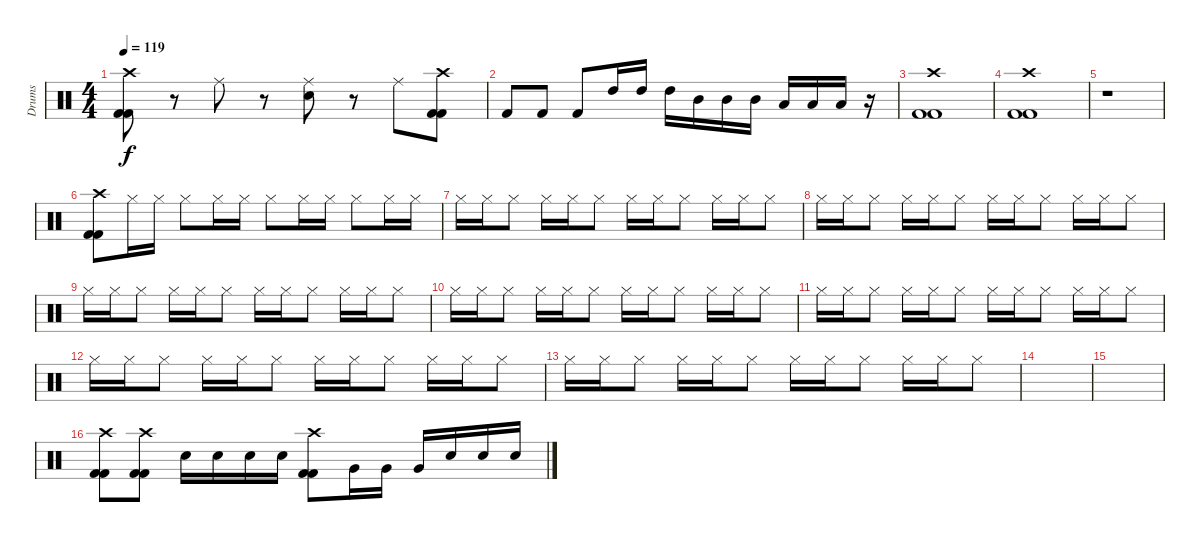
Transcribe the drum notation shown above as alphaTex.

\track ("Drums" "Drums") {instrument percussion}
\staff {score}
\articulation defaults
\ts (4 4)
\tempo 119
\clef neutral
\ks c
("Crash high (hit)" "Kick (hit) 2" "Kick (hit) 2").8{dy f} r.8 "Ride (middle)".8 r.8 ("Ride (middle)" "Electric Snare (hit)").8 r.8 "Ride (middle)".8 ("Crash high (hit)" "Kick (hit) 2" "Kick (hit) 2").8 |
"Kick (hit) 2".8 "Kick (hit) 2".8 "Kick (hit) 2".8 "High Tom (hit)".16 "High Tom (hit)".16 "High Tom (hit)".16 "Mid Tom (hit)".16 "Mid Tom (hit)".16 "Mid Tom (hit)".16 "Low Tom (hit)".16 "Low Tom (hit)".16 "Low Tom (hit)".16 r.16 |
("Crash high (hit)" "Kick (hit) 2" "Kick (hit) 2").1 |
("Crash high (hit)" "Kick (hit) 2" "Kick (hit) 2").1 |
r.1 |
("Crash high (hit)" "Kick (hit) 2" "Kick (hit) 2").8{volume 8} "Hi-Hat (closed)".16 "Hi-Hat (closed)".16 "Hi-Hat (closed)".8 "Hi-Hat (closed)".16 "Hi-Hat (closed)".16 "Hi-Hat (closed)".8 "Hi-Hat (closed)".16 "Hi-Hat (closed)".16 "Hi-Hat (closed)".8 "Hi-Hat (closed)".16 "Hi-Hat (closed)".16 |
"Hi-Hat (closed)".16 "Hi-Hat (closed)".16 "Hi-Hat (closed)".8 "Hi-Hat (closed)".16 "Hi-Hat (closed)".16 "Hi-Hat (closed)".8 "Hi-Hat (closed)".16 "Hi-Hat (closed)".16 "Hi-Hat (closed)".8 "Hi-Hat (closed)".16 "Hi-Hat (closed)".16 "Hi-Hat (closed)".8 |
"Hi-Hat (closed)".16 "Hi-Hat (closed)".16 "Hi-Hat (closed)".8 "Hi-Hat (closed)".16 "Hi-Hat (closed)".16 "Hi-Hat (closed)".8 "Hi-Hat (closed)".16 "Hi-Hat (closed)".16 "Hi-Hat (closed)".8 "Hi-Hat (closed)".16 "Hi-Hat (closed)".16 "Hi-Hat (closed)".8 |
"Hi-Hat (closed)".16 "Hi-Hat (closed)".16 "Hi-Hat (closed)".8 "Hi-Hat (closed)".16 "Hi-Hat (closed)".16 "Hi-Hat (closed)".8 "Hi-Hat (closed)".16 "Hi-Hat (closed)".16 "Hi-Hat (closed)".8 "Hi-Hat (closed)".16 "Hi-Hat (closed)".16 "Hi-Hat (closed)".8 |
"Hi-Hat (closed)".16 "Hi-Hat (closed)".16 "Hi-Hat (closed)".8 "Hi-Hat (closed)".16 "Hi-Hat (closed)".16 "Hi-Hat (closed)".8 "Hi-Hat (closed)".16 "Hi-Hat (closed)".16 "Hi-Hat (closed)".8 "Hi-Hat (closed)".16 "Hi-Hat (closed)".16 "Hi-Hat (closed)".8 |
"Hi-Hat (closed)".16 "Hi-Hat (closed)".16 "Hi-Hat (closed)".8 "Hi-Hat (closed)".16 "Hi-Hat (closed)".16 "Hi-Hat (closed)".8 "Hi-Hat (closed)".16 "Hi-Hat (closed)".16 "Hi-Hat (closed)".8 "Hi-Hat (closed)".16 "Hi-Hat (closed)".16 "Hi-Hat (closed)".8 |
"Hi-Hat (closed)".16 "Hi-Hat (closed)".16 "Hi-Hat (closed)".8 "Hi-Hat (closed)".16 "Hi-Hat (closed)".16 "Hi-Hat (closed)".8 "Hi-Hat (closed)".16 "Hi-Hat (closed)".16 "Hi-Hat (closed)".8 "Hi-Hat (closed)".16 "Hi-Hat (closed)".16 "Hi-Hat (closed)".8 |
"Hi-Hat (closed)".16 "Hi-Hat (closed)".16 "Hi-Hat (closed)".8 "Hi-Hat (closed)".16 "Hi-Hat (closed)".16 "Hi-Hat (closed)".8 "Hi-Hat (closed)".16 "Hi-Hat (closed)".16 "Hi-Hat (closed)".8 "Hi-Hat (closed)".16 "Hi-Hat (closed)".16 "Hi-Hat (closed)".8 |
|
|
("Crash high (hit)" "Kick (hit) 2" "Kick (hit) 2").8 ("Crash high (hit)" "Kick (hit) 2" "Kick (hit) 2").8 "Electric Snare (hit)".16 "Electric Snare (hit)".16 "Electric Snare (hit)".16 "Electric Snare (hit)".16 ("Crash high (hit)" "Kick (hit) 2" "Kick (hit) 2").8 "Very Low Tom (hit)".16 "Very Low Tom (hit)".16 "Very Low Tom (hit)".16 "Electric Snare (hit)".16 "Electric Snare (hit)".16 "Electric Snare (hit)".16
